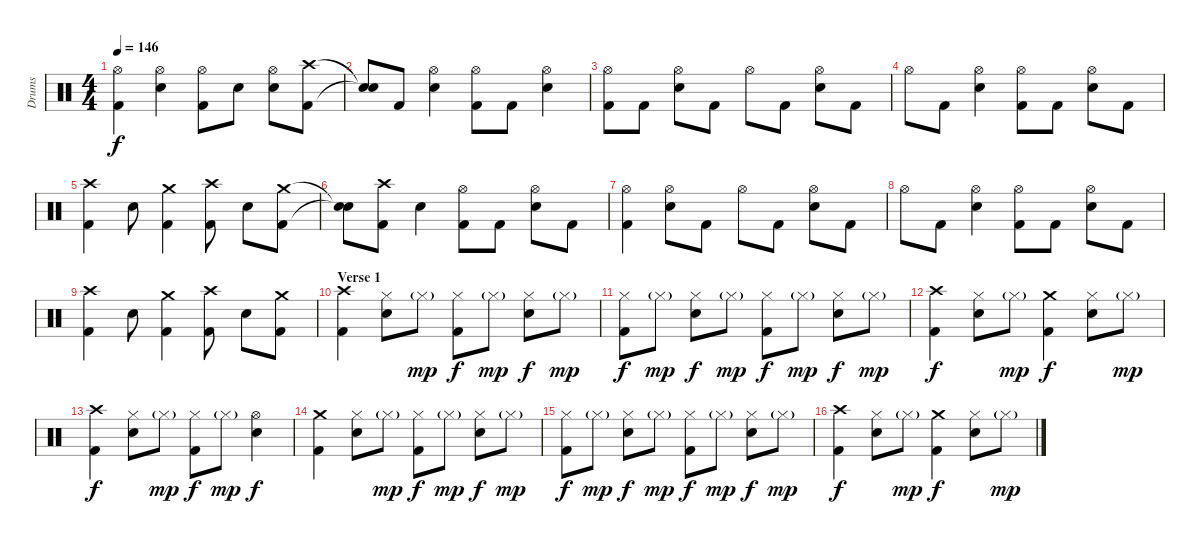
\track ("Drums" "Drums") {instrument percussion}
\staff {score}
\articulation defaults
\ts (4 4)
\tempo 146
\clef neutral
\ks c
("Hi-Hat (open)" "Kick (hit) 2").4{dy f} ("Hi-Hat (open)" "Snare (hit) 2").4 ("Hi-Hat (open)" "Kick (hit) 2").8 "Snare (hit) 2".8 ("Hi-Hat (open)" "Snare (hit) 2").8 ("Crash high (hit)" "Kick (hit) 2").8 |
("Snare (hit)"{t} "Snare (hit)"{t}).8 "Kick (hit) 2".8 ("Hi-Hat (open)" "Snare (hit) 2").4 ("Hi-Hat (open)" "Kick (hit) 2").8 "Kick (hit) 2".8 ("Hi-Hat (open)" "Snare (hit) 2").4 |
("Hi-Hat (open)" "Kick (hit) 2").8 "Kick (hit) 2".8 ("Hi-Hat (open)" "Snare (hit) 2").8 "Kick (hit) 2".8 "Hi-Hat (open)".8 "Kick (hit) 2".8 ("Hi-Hat (open)" "Snare (hit) 2").8 "Kick (hit) 2".8 |
"Hi-Hat (open)".8 "Kick (hit) 2".8 ("Hi-Hat (open)" "Snare (hit) 2").4 ("Hi-Hat (open)" "Kick (hit) 2").8 "Kick (hit) 2".8 ("Hi-Hat (open)" "Snare (hit) 2").8 "Kick (hit) 2".8 |
("Crash high (hit)" "Kick (hit) 2").4 "Snare (hit) 2".8 ("Crash medium (hit)" "Kick (hit) 2").4 ("Crash high (hit)" "Kick (hit) 2").8 "Snare (hit) 2".8 ("Crash medium (hit)" "Kick (hit) 2").8 |
("Snare (hit)"{t} "Snare (hit)"{t}).8 ("Crash high (hit)" "Kick (hit) 2").8 "Snare (hit) 2".4 ("Hi-Hat (open)" "Kick (hit) 2").8 "Kick (hit) 2".8 ("Hi-Hat (open)" "Snare (hit) 2").8 "Kick (hit) 2".8 |
("Hi-Hat (open)" "Kick (hit) 2").4 ("Hi-Hat (open)" "Snare (hit) 2").8 "Kick (hit) 2".8 "Hi-Hat (open)".8 "Kick (hit) 2".8 ("Hi-Hat (open)" "Snare (hit) 2").8 "Kick (hit) 2".8 |
"Hi-Hat (open)".8 "Kick (hit) 2".8 ("Hi-Hat (open)" "Snare (hit) 2").4 ("Hi-Hat (open)" "Kick (hit) 2").8 "Kick (hit) 2".8 ("Hi-Hat (open)" "Snare (hit) 2").8 "Kick (hit) 2".8 |
("Crash high (hit)" "Kick (hit) 2").4 "Snare (hit) 2".8 ("Crash medium (hit)" "Kick (hit) 2").4 ("Crash high (hit)" "Kick (hit) 2").8 "Snare (hit) 2".8 ("Crash medium (hit)" "Kick (hit) 2").8 |
\section ("" "Verse 1")
("Crash high (hit)" "Kick (hit) 2").4 ("Hi-Hat (closed)" "Snare (hit) 2").8 "Hi-Hat (closed)"{g}.8{dy mp} ("Hi-Hat (closed)" "Kick (hit) 2").8{dy f} "Hi-Hat (closed)"{g}.8{dy mp} ("Hi-Hat (closed)" "Snare (hit) 2").8{dy f} "Hi-Hat (closed)"{g}.8{dy mp} |
("Hi-Hat (closed)" "Kick (hit) 2").8{dy f} "Hi-Hat (closed)"{g}.8{dy mp} ("Hi-Hat (closed)" "Snare (hit) 2").8{dy f} "Hi-Hat (closed)"{g}.8{dy mp} ("Hi-Hat (closed)" "Kick (hit) 2").8{dy f} "Hi-Hat (closed)"{g}.8{dy mp} ("Hi-Hat (closed)" "Snare (hit) 2").8{dy f} "Hi-Hat (closed)"{g}.8{dy mp} |
("Crash high (hit)" "Kick (hit) 2").4{dy f} ("Hi-Hat (closed)" "Snare (hit) 2").8 "Hi-Hat (closed)"{g}.8{dy mp} ("Crash medium (hit)" "Kick (hit) 2").4{dy f} ("Hi-Hat (closed)" "Snare (hit) 2").8 "Hi-Hat (closed)"{g}.8{dy mp} |
("Crash high (hit)" "Kick (hit) 2").4{dy f} ("Hi-Hat (closed)" "Snare (hit) 2").8 "Hi-Hat (closed)"{g}.8{dy mp} ("Hi-Hat (closed)" "Kick (hit) 2").8{dy f} "Hi-Hat (closed)"{g}.8{dy mp} ("Hi-Hat (open)" "Snare (hit) 2").4{dy f} |
("Crash medium (hit)" "Kick (hit) 2").4 ("Hi-Hat (closed)" "Snare (hit) 2").8 "Hi-Hat (closed)"{g}.8{dy mp} ("Hi-Hat (closed)" "Kick (hit) 2").8{dy f} "Hi-Hat (closed)"{g}.8{dy mp} ("Hi-Hat (closed)" "Snare (hit) 2").8{dy f} "Hi-Hat (closed)"{g}.8{dy mp} |
("Hi-Hat (closed)" "Kick (hit) 2").8{dy f} "Hi-Hat (closed)"{g}.8{dy mp} ("Hi-Hat (closed)" "Snare (hit) 2").8{dy f} "Hi-Hat (closed)"{g}.8{dy mp} ("Hi-Hat (closed)" "Kick (hit) 2").8{dy f} "Hi-Hat (closed)"{g}.8{dy mp} ("Hi-Hat (closed)" "Snare (hit) 2").8{dy f} "Hi-Hat (closed)"{g}.8{dy mp} |
("Crash high (hit)" "Kick (hit) 2").4{dy f} ("Hi-Hat (closed)" "Snare (hit) 2").8 "Hi-Hat (closed)"{g}.8{dy mp} ("Crash medium (hit)" "Kick (hit) 2").4{dy f} ("Hi-Hat (closed)" "Snare (hit) 2").8 "Hi-Hat (closed)"{g}.8{dy mp}
